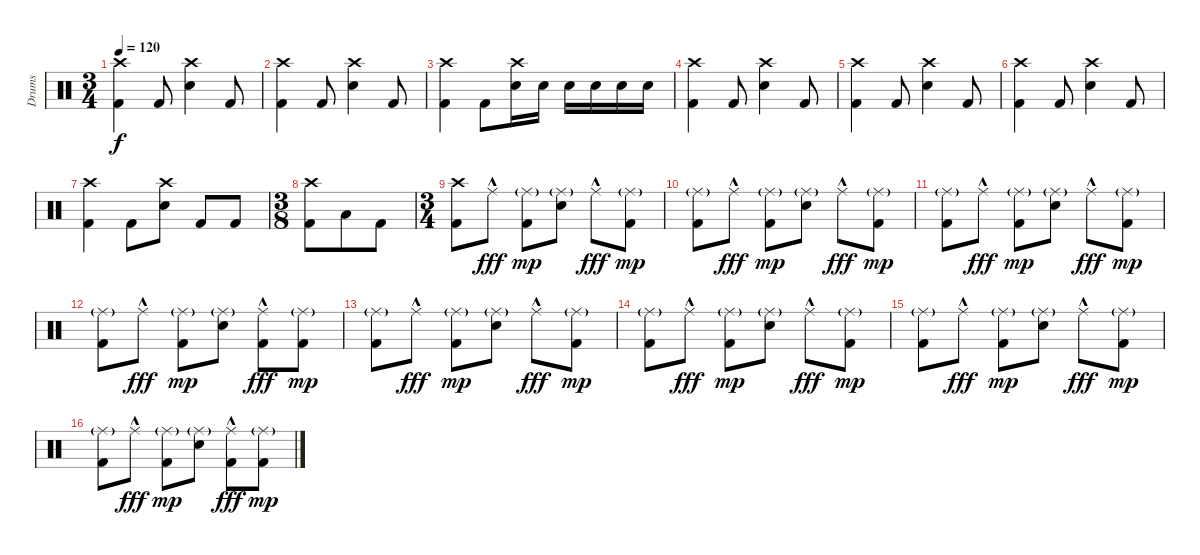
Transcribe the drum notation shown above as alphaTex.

\track ("Drums" "Drums") {instrument percussion}
\staff {score}
\articulation defaults
\ts (3 4)
\tempo 120
\clef neutral
\ks c
("Crash high (hit)" "Kick (hit) 2").4{dy f} "Kick (hit) 2".8 ("Crash high (hit)" "Snare (hit) 2").4 "Kick (hit) 2".8 |
("Crash high (hit)" "Kick (hit) 2").4 "Kick (hit) 2".8 ("Crash high (hit)" "Snare (hit) 2").4 "Kick (hit) 2".8 |
("Crash high (hit)" "Kick (hit) 2").4 "Kick (hit) 2".8 ("Crash high (hit)" "Snare (hit) 2").16 "Snare (hit) 2".16 "Snare (hit) 2".16 "Snare (hit) 2".16 "Snare (hit) 2".16 "Snare (hit) 2".16 |
("Crash high (hit)" "Kick (hit) 2").4 "Kick (hit) 2".8 ("Crash high (hit)" "Snare (hit) 2").4 "Kick (hit) 2".8 |
("Crash high (hit)" "Kick (hit) 2").4 "Kick (hit) 2".8 ("Crash high (hit)" "Snare (hit) 2").4 "Kick (hit) 2".8 |
("Crash high (hit)" "Kick (hit) 2").4 "Kick (hit) 2".8 ("Crash high (hit)" "Snare (hit) 2").4 "Kick (hit) 2".8 |
("Crash high (hit)" "Kick (hit) 2").4 "Kick (hit) 2".8 ("Crash high (hit)" "Snare (hit) 2").8 "Kick (hit) 2".8 "Kick (hit) 2".8 |
\ts (3 8)
("Crash high (hit)" "Kick (hit) 2").8 "Low Floor Tom (hit)".8 "Kick (hit) 2".8 |
\ts (3 4)
("Crash high (hit)" "Kick (hit) 2").8 "Ride (middle)"{hac}.8{dy fff} ("Ride (middle)"{g} "Kick (hit) 2").8{dy mp} ("Ride (middle)"{g} "Snare (hit) 2").8 "Ride (middle)"{hac}.8{dy fff} ("Ride (middle)"{g} "Kick (hit) 2").8{dy mp} |
("Ride (middle)"{g} "Kick (hit) 2").8 "Ride (middle)"{hac}.8{dy fff} ("Ride (middle)"{g} "Kick (hit) 2").8{dy mp} ("Ride (middle)"{g} "Snare (hit) 2").8 "Ride (middle)"{hac}.8{dy fff} ("Ride (middle)"{g} "Kick (hit) 2").8{dy mp} |
("Ride (middle)"{g} "Kick (hit) 2").8 "Ride (middle)"{hac}.8{dy fff} ("Ride (middle)"{g} "Kick (hit) 2").8{dy mp} ("Ride (middle)"{g} "Snare (hit) 2").8 "Ride (middle)"{hac}.8{dy fff} ("Ride (middle)"{g} "Kick (hit) 2").8{dy mp} |
("Ride (middle)"{g} "Kick (hit) 2").8 "Ride (middle)"{hac}.8{dy fff} ("Ride (middle)"{g} "Kick (hit) 2").8{dy mp} ("Ride (middle)"{g} "Snare (hit) 2").8 ("Ride (middle)"{hac} "Kick (hit) 2").8{dy fff} ("Ride (middle)"{g} "Kick (hit) 2").8{dy mp} |
("Ride (middle)"{g} "Kick (hit) 2").8 "Ride (middle)"{hac}.8{dy fff} ("Ride (middle)"{g} "Kick (hit) 2").8{dy mp} ("Ride (middle)"{g} "Snare (hit) 2").8 "Ride (middle)"{hac}.8{dy fff} ("Ride (middle)"{g} "Kick (hit) 2").8{dy mp} |
("Ride (middle)"{g} "Kick (hit) 2").8 "Ride (middle)"{hac}.8{dy fff} ("Ride (middle)"{g} "Kick (hit) 2").8{dy mp} ("Ride (middle)"{g} "Snare (hit) 2").8 "Ride (middle)"{hac}.8{dy fff} ("Ride (middle)"{g} "Kick (hit) 2").8{dy mp} |
("Ride (middle)"{g} "Kick (hit) 2").8 "Ride (middle)"{hac}.8{dy fff} ("Ride (middle)"{g} "Kick (hit) 2").8{dy mp} ("Ride (middle)"{g} "Snare (hit) 2").8 "Ride (middle)"{hac}.8{dy fff} ("Ride (middle)"{g} "Kick (hit) 2").8{dy mp} |
("Ride (middle)"{g} "Kick (hit) 2").8 "Ride (middle)"{hac}.8{dy fff} ("Ride (middle)"{g} "Kick (hit) 2").8{dy mp} ("Ride (middle)"{g} "Snare (hit) 2").8 ("Ride (middle)"{hac} "Kick (hit) 2").8{dy fff} ("Ride (middle)"{g} "Kick (hit) 2").8{dy mp}
